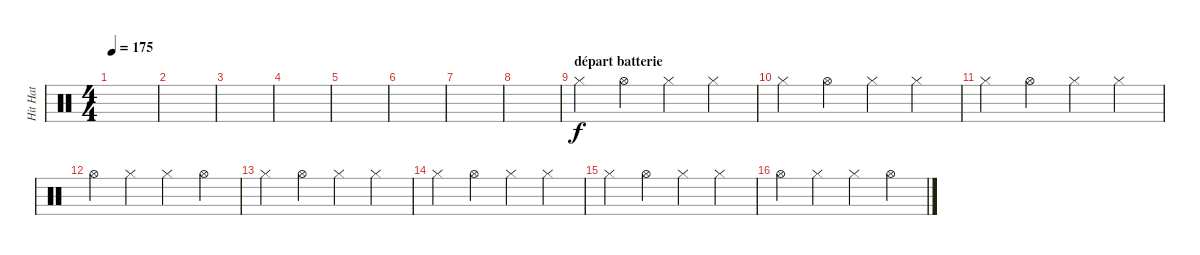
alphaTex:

\track ("Hit Hat" "Hit Hat") {instrument percussion}
\staff {score}
\articulation defaults
\ts (4 4)
\tempo 175
\clef neutral
\ks c
|
|
|
|
|
|
|
|
\section ("" "départ batterie")
"Hi-Hat (closed)".4 "Hi-Hat (open)".4 "Hi-Hat (closed)".4 "Hi-Hat (closed)".4 |
"Hi-Hat (closed)".4 "Hi-Hat (open)".4 "Hi-Hat (closed)".4 "Hi-Hat (closed)".4 |
"Hi-Hat (closed)".4 "Hi-Hat (open)".4 "Hi-Hat (closed)".4 "Hi-Hat (closed)".4 |
"Hi-Hat (open)".4 "Hi-Hat (closed)".4 "Hi-Hat (closed)".4 "Hi-Hat (open)".4 |
"Hi-Hat (closed)".4 "Hi-Hat (open)".4 "Hi-Hat (closed)".4 "Hi-Hat (closed)".4 |
"Hi-Hat (closed)".4 "Hi-Hat (open)".4 "Hi-Hat (closed)".4 "Hi-Hat (closed)".4 |
"Hi-Hat (closed)".4 "Hi-Hat (open)".4 "Hi-Hat (closed)".4 "Hi-Hat (closed)".4 |
"Hi-Hat (open)".4 "Hi-Hat (closed)".4 "Hi-Hat (closed)".4 "Hi-Hat (open)".4
